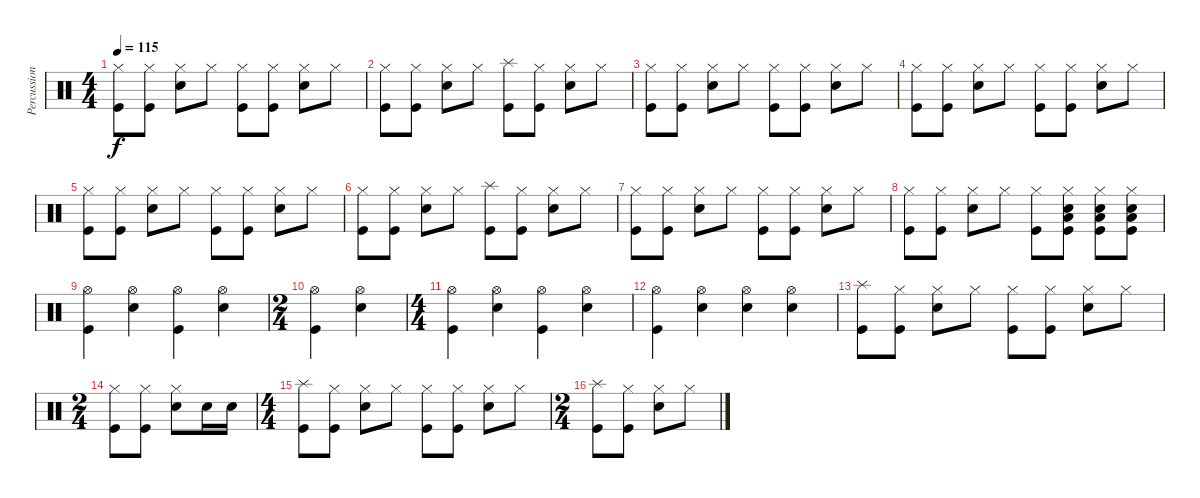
\track ("Percussion" "Percussion") {instrument percussion}
\staff {score}
\articulation defaults
\ts (4 4)
\tempo 115
\clef neutral
\ks c
("Hi-Hat (closed)" "Kick (hit)").8{dy f} ("Hi-Hat (closed)" "Kick (hit)").8 ("Hi-Hat (closed)" "Snare (hit) 2").8 "Hi-Hat (closed)".8 ("Hi-Hat (closed)" "Kick (hit)").8 ("Hi-Hat (closed)" "Kick (hit)").8 ("Hi-Hat (closed)" "Snare (hit) 2").8 "Hi-Hat (closed)".8 |
("Hi-Hat (closed)" "Kick (hit)").8 ("Hi-Hat (closed)" "Kick (hit)").8 ("Hi-Hat (closed)" "Snare (hit) 2").8 "Hi-Hat (closed)".8 ("Splash (hit)" "Kick (hit)").8 ("Hi-Hat (closed)" "Kick (hit)").8 ("Hi-Hat (closed)" "Snare (hit) 2").8 "Hi-Hat (closed)".8 |
("Hi-Hat (closed)" "Kick (hit)").8 ("Hi-Hat (closed)" "Kick (hit)").8 ("Hi-Hat (closed)" "Snare (hit) 2").8 "Hi-Hat (closed)".8 ("Hi-Hat (closed)" "Kick (hit)").8 ("Hi-Hat (closed)" "Kick (hit)").8 ("Hi-Hat (closed)" "Snare (hit) 2").8 "Hi-Hat (closed)".8 |
("Hi-Hat (closed)" "Kick (hit)").8 ("Hi-Hat (closed)" "Kick (hit)").8 ("Hi-Hat (closed)" "Snare (hit) 2").8 "Hi-Hat (closed)".8 ("Hi-Hat (closed)" "Kick (hit)").8 ("Hi-Hat (closed)" "Kick (hit)").8 ("Hi-Hat (closed)" "Snare (hit) 2").8 "Hi-Hat (closed)".8 |
("Hi-Hat (closed)" "Kick (hit)").8 ("Hi-Hat (closed)" "Kick (hit)").8 ("Hi-Hat (closed)" "Snare (hit) 2").8 "Hi-Hat (closed)".8 ("Hi-Hat (closed)" "Kick (hit)").8 ("Hi-Hat (closed)" "Kick (hit)").8 ("Hi-Hat (closed)" "Snare (hit) 2").8 "Hi-Hat (closed)".8 |
("Hi-Hat (closed)" "Kick (hit)").8 ("Hi-Hat (closed)" "Kick (hit)").8 ("Hi-Hat (closed)" "Snare (hit) 2").8 "Hi-Hat (closed)".8 ("Splash (hit)" "Kick (hit)").8 ("Hi-Hat (closed)" "Kick (hit)").8 ("Hi-Hat (closed)" "Snare (hit) 2").8 "Hi-Hat (closed)".8 |
("Hi-Hat (closed)" "Kick (hit)").8 ("Hi-Hat (closed)" "Kick (hit)").8 ("Hi-Hat (closed)" "Snare (hit) 2").8 "Hi-Hat (closed)".8 ("Hi-Hat (closed)" "Kick (hit)").8 ("Hi-Hat (closed)" "Kick (hit)").8 ("Hi-Hat (closed)" "Snare (hit) 2").8 "Hi-Hat (closed)".8 |
("Hi-Hat (closed)" "Kick (hit)").8 ("Hi-Hat (closed)" "Kick (hit)").8 ("Hi-Hat (closed)" "Snare (hit) 2").8 "Hi-Hat (closed)".8 ("Hi-Hat (closed)" "Kick (hit)").8 ("Hi-Hat (closed)" "Low Tom (hit)" "Snare (hit) 2" "Kick (hit)").8 ("Hi-Hat (closed)" "Low Tom (hit)" "Snare (hit) 2" "Kick (hit)").8 ("Hi-Hat (closed)" "Low Tom (hit)" "Snare (hit) 2" "Kick (hit)").8 |
("Hi-Hat (open)" "Kick (hit)").4 ("Hi-Hat (open)" "Snare (hit) 2").4 ("Hi-Hat (open)" "Kick (hit)").4 ("Hi-Hat (open)" "Snare (hit) 2").4 |
\ts (2 4)
("Hi-Hat (open)" "Kick (hit)").4 ("Hi-Hat (open)" "Snare (hit) 2").4 |
\ts (4 4)
("Hi-Hat (open)" "Kick (hit)").4 ("Hi-Hat (open)" "Snare (hit) 2").4 ("Hi-Hat (open)" "Kick (hit)").4 ("Hi-Hat (open)" "Snare (hit) 2").4 |
("Hi-Hat (open)" "Kick (hit)").4 ("Hi-Hat (open)" "Snare (hit) 2").4 ("Hi-Hat (open)" "Snare (hit) 2").4 ("Hi-Hat (open)" "Snare (hit) 2").4 |
("Splash (hit)" "Kick (hit)").8 ("Hi-Hat (closed)" "Kick (hit)").8 ("Hi-Hat (closed)" "Snare (hit) 2").8 "Hi-Hat (closed)".8 ("Hi-Hat (closed)" "Kick (hit)").8 ("Hi-Hat (closed)" "Kick (hit)").8 ("Hi-Hat (closed)" "Snare (hit) 2").8 "Hi-Hat (closed)".8 |
\ts (2 4)
("Hi-Hat (closed)" "Kick (hit)").8 ("Hi-Hat (closed)" "Kick (hit)").8 ("Hi-Hat (closed)" "Snare (hit) 2").8 "Snare (hit) 2".16 "Snare (hit) 2".16 |
\ts (4 4)
("Splash (hit)" "Kick (hit)").8 ("Hi-Hat (closed)" "Kick (hit)").8 ("Hi-Hat (closed)" "Snare (hit) 2").8 "Hi-Hat (closed)".8 ("Hi-Hat (closed)" "Kick (hit)").8 ("Hi-Hat (closed)" "Kick (hit)").8 ("Hi-Hat (closed)" "Snare (hit) 2").8 "Hi-Hat (closed)".8 |
\ts (2 4)
("Splash (hit)" "Kick (hit)").8 ("Hi-Hat (closed)" "Kick (hit)").8 ("Hi-Hat (closed)" "Snare (hit) 2").8 "Hi-Hat (closed)".8
